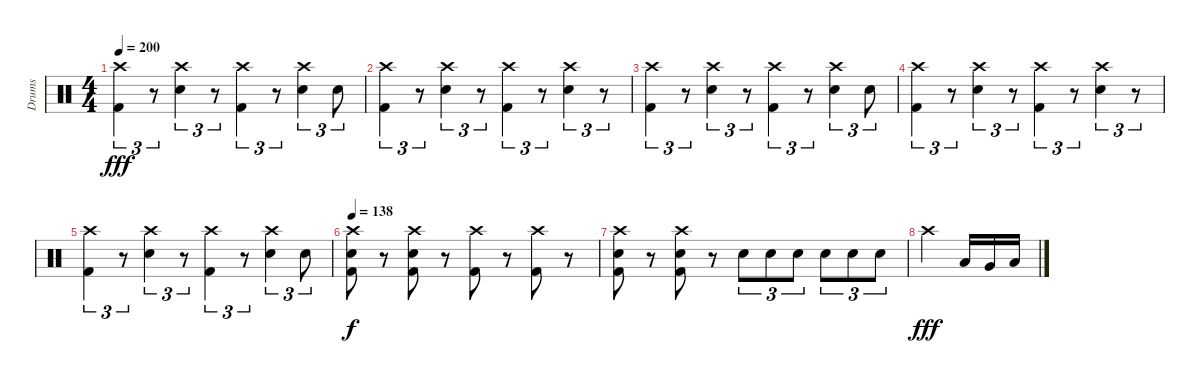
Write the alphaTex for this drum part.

\track ("Drums" "Drums") {instrument percussion}
\staff {score}
\articulation defaults
\ts (4 4)
\tempo 200
\clef neutral
\ks c
("Crash high (hit)" "Kick (hit) 2").4{tu (3 2) dy fff} r.8{tu (3 2)} ("Crash high (hit)" "Snare (hit) 2").4{tu (3 2)} r.8{tu (3 2)} ("Crash high (hit)" "Kick (hit) 2").4{tu (3 2)} r.8{tu (3 2)} ("Crash high (hit)" "Snare (hit) 2").4{tu (3 2)} "Snare (hit) 2".8{tu (3 2)} |
("Crash high (hit)" "Kick (hit) 2").4{tu (3 2)} r.8{tu (3 2)} ("Crash high (hit)" "Snare (hit) 2").4{tu (3 2)} r.8{tu (3 2)} ("Crash high (hit)" "Kick (hit) 2").4{tu (3 2)} r.8{tu (3 2)} ("Crash high (hit)" "Snare (hit) 2").4{tu (3 2)} r.8{tu (3 2)} |
("Crash high (hit)" "Kick (hit) 2").4{tu (3 2)} r.8{tu (3 2)} ("Crash high (hit)" "Snare (hit) 2").4{tu (3 2)} r.8{tu (3 2)} ("Crash high (hit)" "Kick (hit) 2").4{tu (3 2)} r.8{tu (3 2)} ("Crash high (hit)" "Snare (hit) 2").4{tu (3 2)} "Snare (hit) 2".8{tu (3 2)} |
("Crash high (hit)" "Kick (hit) 2").4{tu (3 2)} r.8{tu (3 2)} ("Crash high (hit)" "Snare (hit) 2").4{tu (3 2)} r.8{tu (3 2)} ("Crash high (hit)" "Kick (hit) 2").4{tu (3 2)} r.8{tu (3 2)} ("Crash high (hit)" "Snare (hit) 2").4{tu (3 2)} r.8{tu (3 2)} |
("Crash high (hit)" "Kick (hit) 2").4{tu (3 2)} r.8{tu (3 2)} ("Crash high (hit)" "Snare (hit) 2").4{tu (3 2)} r.8{tu (3 2)} ("Crash high (hit)" "Kick (hit) 2").4{tu (3 2)} r.8{tu (3 2)} ("Crash high (hit)" "Snare (hit) 2").4{tu (3 2)} "Snare (hit) 2".8{tu (3 2)} |
\tempo 138
("Crash high (hit)" "Snare (hit) 2" "Kick (hit) 2").8{dy f} r.8 ("Crash high (hit)" "Snare (hit) 2" "Kick (hit) 2").8 r.8 ("Crash high (hit)" "Kick (hit) 2").8 r.8 ("Crash high (hit)" "Kick (hit) 2").8 r.8 |
("Crash high (hit)" "Snare (hit) 2" "Kick (hit) 2").8 r.8 ("Crash high (hit)" "Snare (hit) 2" "Kick (hit) 2").8 r.8 "Snare (hit) 2".8{tu (3 2)} "Snare (hit) 2".8{tu (3 2)} "Snare (hit) 2".8{tu (3 2)} "Snare (hit) 2".8{tu (3 2)} "Snare (hit) 2".8{tu (3 2)} "Snare (hit) 2".8{tu (3 2)} |
"Crash high (hit)".4{dy fff} "Low Tom (hit)".16 "Very Low Tom (hit)".16 "Low Floor Tom (hit)".16
